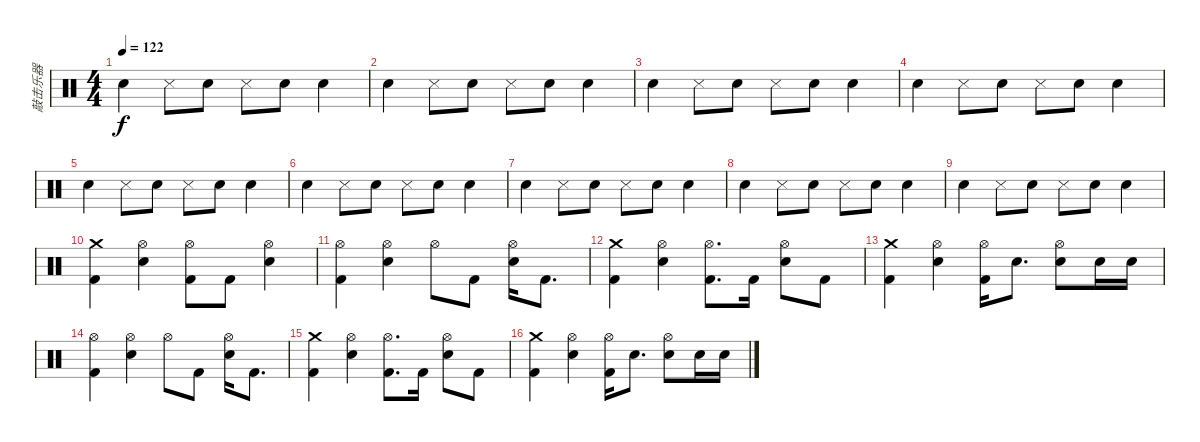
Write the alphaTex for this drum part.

\track ("敲击乐器" "敲击乐器") {instrument percussion}
\staff {score}
\articulation defaults
\ts (4 4)
\tempo 122
\clef neutral
\ks c "Snare (hit) 2".4{dy f} "Snare (side stick) 3".8 "Snare (hit) 2".8 "Snare (side stick) 3".8 "Snare (hit) 2".8 "Snare (hit) 2".4
|
"Snare (hit) 2".4 "Snare (side stick) 3".8 "Snare (hit) 2".8 "Snare (side stick) 3".8 "Snare (hit) 2".8 "Snare (hit) 2".4 |
"Snare (hit) 2".4 "Snare (side stick) 3".8 "Snare (hit) 2".8 "Snare (side stick) 3".8 "Snare (hit) 2".8 "Snare (hit) 2".4 |
"Snare (hit) 2".4 "Snare (side stick) 3".8 "Snare (hit) 2".8 "Snare (side stick) 3".8 "Snare (hit) 2".8 "Snare (hit) 2".4 |
"Snare (hit) 2".4 "Snare (side stick) 3".8 "Snare (hit) 2".8 "Snare (side stick) 3".8 "Snare (hit) 2".8 "Snare (hit) 2".4 |
"Snare (hit) 2".4 "Snare (side stick) 3".8 "Snare (hit) 2".8 "Snare (side stick) 3".8 "Snare (hit) 2".8 "Snare (hit) 2".4 |
"Snare (hit) 2".4 "Snare (side stick) 3".8 "Snare (hit) 2".8 "Snare (side stick) 3".8 "Snare (hit) 2".8 "Snare (hit) 2".4 |
"Snare (hit) 2".4 "Snare (side stick) 3".8 "Snare (hit) 2".8 "Snare (side stick) 3".8 "Snare (hit) 2".8 "Snare (hit) 2".4 |
"Snare (hit) 2".4 "Snare (side stick) 3".8 "Snare (hit) 2".8 "Snare (side stick) 3".8 "Snare (hit) 2".8 "Snare (hit) 2".4 |
("Crash medium (hit)" "Kick (hit) 2").4 ("Hi-Hat (open)" "Snare (hit) 2").4 ("Hi-Hat (open)" "Kick (hit) 2").8 "Kick (hit) 2".8 ("Hi-Hat (open)" "Snare (hit) 2").4 |
("Hi-Hat (open)" "Kick (hit) 2").4 ("Hi-Hat (open)" "Snare (hit) 2").4 "Hi-Hat (open)".8 "Kick (hit) 2".8 ("Hi-Hat (open)" "Snare (hit) 2").16 "Kick (hit) 2".8{d} |
("Crash medium (hit)" "Kick (hit) 2").4 ("Hi-Hat (open)" "Snare (hit) 2").4 ("Hi-Hat (open)" "Kick (hit) 2").8{d} "Kick (hit) 2".16 ("Hi-Hat (open)" "Snare (hit) 2").8 "Kick (hit) 2".8 |
("Crash medium (hit)" "Kick (hit) 2").4 ("Hi-Hat (open)" "Snare (hit) 2").4 ("Hi-Hat (open)" "Kick (hit) 2").16 "Snare (hit) 2".8{d} ("Hi-Hat (open)" "Snare (hit) 2").8 "Snare (hit) 2".16 "Snare (hit) 2".16 |
("Hi-Hat (open)" "Kick (hit) 2").4 ("Hi-Hat (open)" "Snare (hit) 2").4 "Hi-Hat (open)".8 "Kick (hit) 2".8 ("Hi-Hat (open)" "Snare (hit) 2").16 "Kick (hit) 2".8{d} |
("Crash medium (hit)" "Kick (hit) 2").4 ("Hi-Hat (open)" "Snare (hit) 2").4 ("Hi-Hat (open)" "Kick (hit) 2").8{d} "Kick (hit) 2".16 ("Hi-Hat (open)" "Snare (hit) 2").8 "Kick (hit) 2".8 |
("Crash medium (hit)" "Kick (hit) 2").4 ("Hi-Hat (open)" "Snare (hit) 2").4 ("Hi-Hat (open)" "Kick (hit) 2").16 "Snare (hit) 2".8{d} ("Hi-Hat (open)" "Snare (hit) 2").8 "Snare (hit) 2".16 "Snare (hit) 2".16
